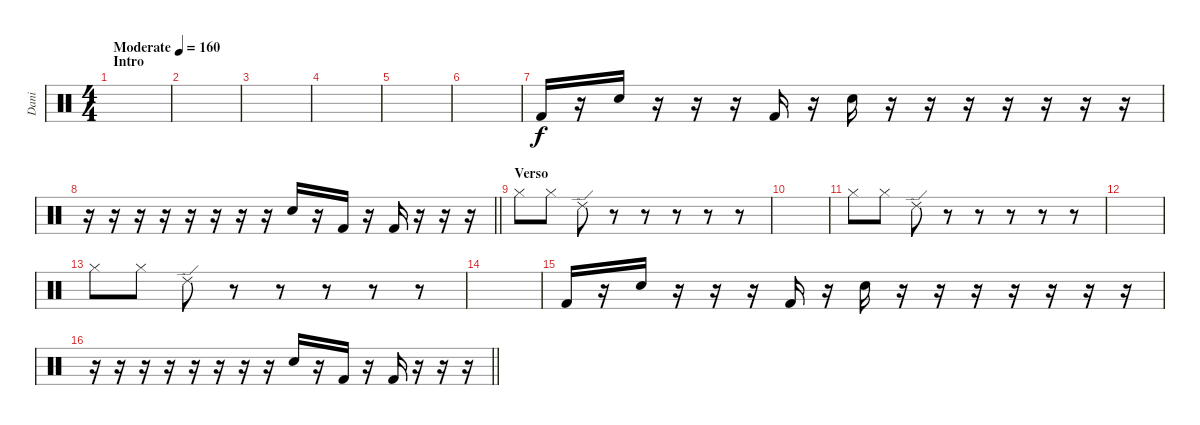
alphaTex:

\track ("Dani " "Dani ") {instrument percussion}
\staff {score}
\articulation defaults
\ts (4 4)
\section ("" "Intro")
\tempo (160 "Moderate")
\clef neutral
\ks c
|
|
|
|
|
|
"Kick (hit) 2".16 r.16 "Electric Snare (hit)".16 r.16 r.16 r.16 "Kick (hit) 2".16 r.16 "Electric Snare (hit)".16 r.16 r.16 r.16 r.16 r.16 r.16 r.16 |
\barLineRight lightlight
r.16 r.16 r.16 r.16 r.16 r.16 r.16 r.16 "Electric Snare (hit)".16 r.16 "Kick (hit) 2".16 r.16 "Kick (hit) 2".16 r.16 r.16 r.16 |
\section ("" "Verso")
"Hi-Hat (closed)".8 "Hi-Hat (closed)".8 "Ride (edge) 2".8 r.8 r.8 r.8 r.8 r.8 |
|
"Hi-Hat (closed)".8 "Hi-Hat (closed)".8 "Ride (edge) 2".8 r.8 r.8 r.8 r.8 r.8 |
|
"Hi-Hat (closed)".8 "Hi-Hat (closed)".8 "Ride (edge) 2".8 r.8 r.8 r.8 r.8 r.8 |
|
"Kick (hit) 2".16 r.16 "Electric Snare (hit)".16 r.16 r.16 r.16 "Kick (hit) 2".16 r.16 "Electric Snare (hit)".16 r.16 r.16 r.16 r.16 r.16 r.16 r.16 |
\barLineRight lightlight
r.16 r.16 r.16 r.16 r.16 r.16 r.16 r.16 "Electric Snare (hit)".16 r.16 "Kick (hit) 2".16 r.16 "Kick (hit) 2".16 r.16 r.16 r.16
